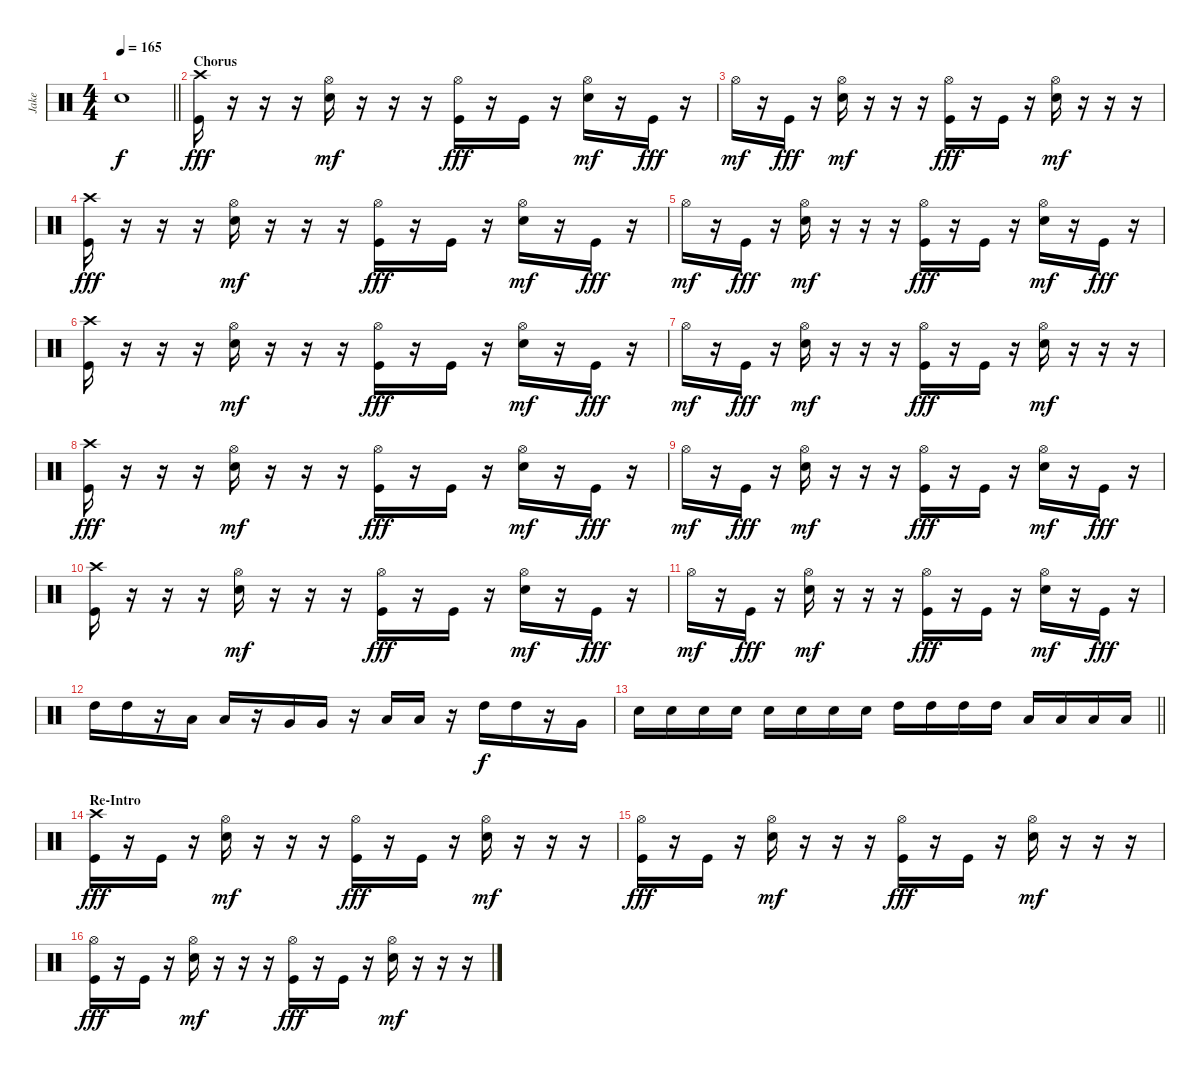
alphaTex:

\track ("Jake" "Jake") {instrument percussion}
\staff {score}
\articulation defaults
\ts (4 4)
\tempo 165
\clef neutral
\barLineRight lightlight
\ks c "Electric Snare (hit)".1{dy f}
|
\section ("" "Chorus")
("Crash high (hit)" "Kick (hit)").16{dy fff} r.16 r.16 r.16 ("Hi-Hat (open)" "Electric Snare (hit)").16{dy mf} r.16 r.16 r.16 ("Hi-Hat (open)" "Kick (hit)").16{dy fff} r.16 "Kick (hit)".16 r.16 ("Hi-Hat (open)" "Electric Snare (hit)").16{dy mf} r.16 "Kick (hit)".16{dy fff} r.16 |
"Hi-Hat (open)".16{dy mf} r.16 "Kick (hit)".16{dy fff} r.16 ("Hi-Hat (open)" "Electric Snare (hit)").16{dy mf} r.16 r.16 r.16 ("Hi-Hat (open)" "Kick (hit)").16{dy fff} r.16 "Kick (hit)".16 r.16 ("Hi-Hat (open)" "Electric Snare (hit)").16{dy mf} r.16 r.16 r.16 |
("Crash high (hit)" "Kick (hit)").16{dy fff} r.16 r.16 r.16 ("Hi-Hat (open)" "Electric Snare (hit)").16{dy mf} r.16 r.16 r.16 ("Hi-Hat (open)" "Kick (hit)").16{dy fff} r.16 "Kick (hit)".16 r.16 ("Hi-Hat (open)" "Electric Snare (hit)").16{dy mf} r.16 "Kick (hit)".16{dy fff} r.16 |
"Hi-Hat (open)".16{dy mf} r.16 "Kick (hit)".16{dy fff} r.16 ("Hi-Hat (open)" "Electric Snare (hit)").16{dy mf} r.16 r.16 r.16 ("Hi-Hat (open)" "Kick (hit)").16{dy fff} r.16 "Kick (hit)".16 r.16 ("Hi-Hat (open)" "Electric Snare (hit)").16{dy mf} r.16 "Kick (hit)".16{dy fff} r.16 |
("Crash high (hit)" "Kick (hit)").16 r.16 r.16 r.16 ("Hi-Hat (open)" "Electric Snare (hit)").16{dy mf} r.16 r.16 r.16 ("Hi-Hat (open)" "Kick (hit)").16{dy fff} r.16 "Kick (hit)".16 r.16 ("Hi-Hat (open)" "Electric Snare (hit)").16{dy mf} r.16 "Kick (hit)".16{dy fff} r.16 |
"Hi-Hat (open)".16{dy mf} r.16 "Kick (hit)".16{dy fff} r.16 ("Hi-Hat (open)" "Electric Snare (hit)").16{dy mf} r.16 r.16 r.16 ("Hi-Hat (open)" "Kick (hit)").16{dy fff} r.16 "Kick (hit)".16 r.16 ("Hi-Hat (open)" "Electric Snare (hit)").16{dy mf} r.16 r.16 r.16 |
("Crash high (hit)" "Kick (hit)").16{dy fff} r.16 r.16 r.16 ("Hi-Hat (open)" "Electric Snare (hit)").16{dy mf} r.16 r.16 r.16 ("Hi-Hat (open)" "Kick (hit)").16{dy fff} r.16 "Kick (hit)".16 r.16 ("Hi-Hat (open)" "Electric Snare (hit)").16{dy mf} r.16 "Kick (hit)".16{dy fff} r.16 |
"Hi-Hat (open)".16{dy mf} r.16 "Kick (hit)".16{dy fff} r.16 ("Hi-Hat (open)" "Electric Snare (hit)").16{dy mf} r.16 r.16 r.16 ("Hi-Hat (open)" "Kick (hit)").16{dy fff} r.16 "Kick (hit)".16 r.16 ("Hi-Hat (open)" "Electric Snare (hit)").16{dy mf} r.16 "Kick (hit)".16{dy fff} r.16 |
("Crash high (hit)" "Kick (hit)").16 r.16 r.16 r.16 ("Hi-Hat (open)" "Electric Snare (hit)").16{dy mf} r.16 r.16 r.16 ("Hi-Hat (open)" "Kick (hit)").16{dy fff} r.16 "Kick (hit)".16 r.16 ("Hi-Hat (open)" "Electric Snare (hit)").16{dy mf} r.16 "Kick (hit)".16{dy fff} r.16 |
"Hi-Hat (open)".16{dy mf} r.16 "Kick (hit)".16{dy fff} r.16 ("Hi-Hat (open)" "Electric Snare (hit)").16{dy mf} r.16 r.16 r.16 ("Hi-Hat (open)" "Kick (hit)").16{dy fff} r.16 "Kick (hit)".16 r.16 ("Hi-Hat (open)" "Electric Snare (hit)").16{dy mf} r.16 "Kick (hit)".16{dy fff} r.16 |
"High Tom (hit)".16 "High Tom (hit)".16 r.16 "Low Tom (hit)".16 "Low Tom (hit)".16 r.16 "Very Low Tom (hit)".16 "Very Low Tom (hit)".16 r.16 "Low Tom (hit)".16 "Low Tom (hit)".16 r.16 "High Tom (hit)".16{dy f} "High Tom (hit)".16 r.16 "Very Low Tom (hit)".16 |
\barLineRight lightlight "Electric Snare (hit)".16 "Electric Snare (hit)".16 "Electric Snare (hit)".16 "Electric Snare (hit)".16 "Electric Snare (hit)".16 "Electric Snare (hit)".16 "Electric Snare (hit)".16 "Electric Snare (hit)".16 "High Tom (hit)".16 "High Tom (hit)".16 "High Tom (hit)".16 "High Tom (hit)".16 "Low Tom (hit)".16 "Low Tom (hit)".16 "Low Tom (hit)".16 "Low Tom (hit)".16
|
\section ("" "Re-Intro")
("Crash high (hit)" "Kick (hit)").16{dy fff} r.16 "Kick (hit)".16 r.16 ("Hi-Hat (open)" "Electric Snare (hit)").16{dy mf} r.16 r.16 r.16 ("Hi-Hat (open)" "Kick (hit)").16{dy fff} r.16 "Kick (hit)".16 r.16 ("Hi-Hat (open)" "Electric Snare (hit)").16{dy mf} r.16 r.16 r.16 |
("Hi-Hat (open)" "Kick (hit)").16{dy fff} r.16 "Kick (hit)".16 r.16 ("Hi-Hat (open)" "Electric Snare (hit)").16{dy mf} r.16 r.16 r.16 ("Hi-Hat (open)" "Kick (hit)").16{dy fff} r.16 "Kick (hit)".16 r.16 ("Hi-Hat (open)" "Electric Snare (hit)").16{dy mf} r.16 r.16 r.16 |
("Hi-Hat (open)" "Kick (hit)").16{dy fff} r.16 "Kick (hit)".16 r.16 ("Hi-Hat (open)" "Electric Snare (hit)").16{dy mf} r.16 r.16 r.16 ("Hi-Hat (open)" "Kick (hit)").16{dy fff} r.16 "Kick (hit)".16 r.16 ("Hi-Hat (open)" "Electric Snare (hit)").16{dy mf} r.16 r.16 r.16
